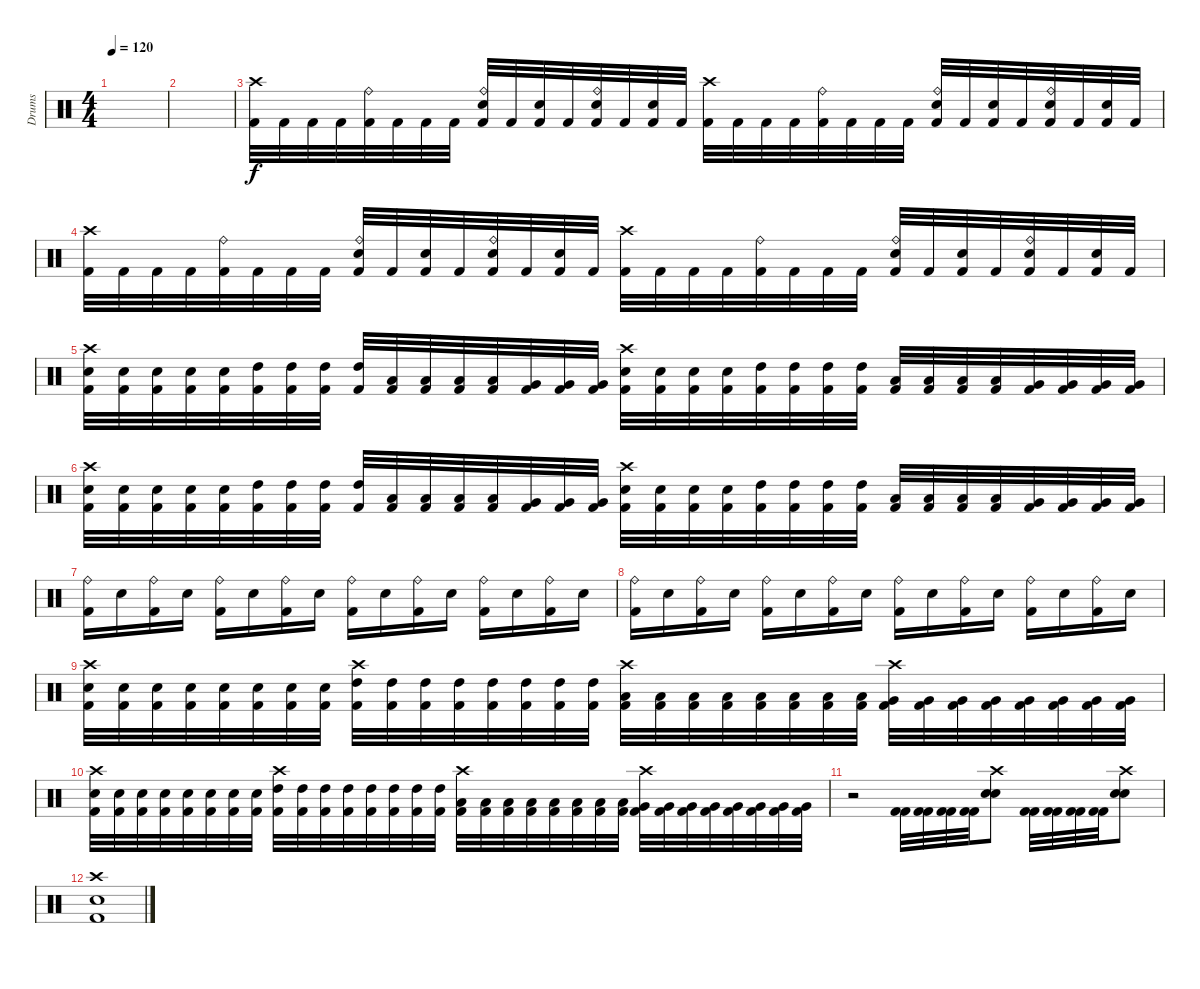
\track ("Drums" "Drums") {instrument percussion}
\staff {score}
\articulation defaults
\ts (4 4)
\tempo 120
\clef neutral
\ks c
|
|
("Crash high (hit)" "Kick (hit) 2").32 "Kick (hit) 2".32 "Kick (hit) 2".32 "Kick (hit) 2".32 ("Ride (bell)" "Kick (hit) 2").32 "Kick (hit) 2".32 "Kick (hit) 2".32 "Kick (hit) 2".32 ("Ride (bell)" "Snare (hit) 2" "Kick (hit) 2").32 "Kick (hit) 2".32 ("Snare (hit) 2" "Kick (hit) 2").32 "Kick (hit) 2".32 ("Ride (bell)" "Snare (hit) 2" "Kick (hit) 2").32 "Kick (hit) 2".32 ("Snare (hit) 2" "Kick (hit) 2").32 "Kick (hit) 2".32 ("Crash high (hit)" "Kick (hit) 2").32 "Kick (hit) 2".32 "Kick (hit) 2".32 "Kick (hit) 2".32 ("Ride (bell)" "Kick (hit) 2").32 "Kick (hit) 2".32 "Kick (hit) 2".32 "Kick (hit) 2".32 ("Ride (bell)" "Snare (hit) 2" "Kick (hit) 2").32 "Kick (hit) 2".32 ("Snare (hit) 2" "Kick (hit) 2").32 "Kick (hit) 2".32 ("Ride (bell)" "Snare (hit) 2" "Kick (hit) 2").32 "Kick (hit) 2".32 ("Snare (hit) 2" "Kick (hit) 2").32 "Kick (hit) 2".32 |
("Crash high (hit)" "Kick (hit) 2").32 "Kick (hit) 2".32 "Kick (hit) 2".32 "Kick (hit) 2".32 ("Ride (bell)" "Kick (hit) 2").32 "Kick (hit) 2".32 "Kick (hit) 2".32 "Kick (hit) 2".32 ("Ride (bell)" "Snare (hit) 2" "Kick (hit) 2").32 "Kick (hit) 2".32 ("Snare (hit) 2" "Kick (hit) 2").32 "Kick (hit) 2".32 ("Ride (bell)" "Snare (hit) 2" "Kick (hit) 2").32 "Kick (hit) 2".32 ("Snare (hit) 2" "Kick (hit) 2").32 "Kick (hit) 2".32 ("Crash high (hit)" "Kick (hit) 2").32 "Kick (hit) 2".32 "Kick (hit) 2".32 "Kick (hit) 2".32 ("Ride (bell)" "Kick (hit) 2").32 "Kick (hit) 2".32 "Kick (hit) 2".32 "Kick (hit) 2".32 ("Ride (bell)" "Snare (hit) 2" "Kick (hit) 2").32 "Kick (hit) 2".32 ("Snare (hit) 2" "Kick (hit) 2").32 "Kick (hit) 2".32 ("Ride (bell)" "Snare (hit) 2" "Kick (hit) 2").32 "Kick (hit) 2".32 ("Snare (hit) 2" "Kick (hit) 2").32 "Kick (hit) 2".32 |
("Crash high (hit)" "Snare (hit) 2" "Kick (hit) 2").32 ("Snare (hit) 2" "Kick (hit) 2").32 ("Snare (hit) 2" "Kick (hit) 2").32 ("Snare (hit) 2" "Kick (hit) 2").32 ("Snare (hit) 2" "Kick (hit) 2").32 ("High Tom (hit)" "Kick (hit) 2").32 ("High Tom (hit)" "Kick (hit) 2").32 ("High Tom (hit)" "Kick (hit) 2").32 ("High Tom (hit)" "Kick (hit) 2").32 ("Low Tom (hit)" "Kick (hit) 2").32 ("Low Tom (hit)" "Kick (hit) 2").32 ("Low Tom (hit)" "Kick (hit) 2").32 ("Low Tom (hit)" "Kick (hit) 2").32 ("Very Low Tom (hit)" "Kick (hit) 2").32 ("Very Low Tom (hit)" "Kick (hit) 2").32 ("Very Low Tom (hit)" "Kick (hit) 2").32 ("Crash high (hit)" "Snare (hit) 2" "Kick (hit) 2").32 ("Snare (hit) 2" "Kick (hit) 2").32 ("Snare (hit) 2" "Kick (hit) 2").32 ("Snare (hit) 2" "Kick (hit) 2").32 ("High Tom (hit)" "Kick (hit) 2").32 ("High Tom (hit)" "Kick (hit) 2").32 ("High Tom (hit)" "Kick (hit) 2").32 ("High Tom (hit)" "Kick (hit) 2").32 ("Low Tom (hit)" "Kick (hit) 2").32 ("Low Tom (hit)" "Kick (hit) 2").32 ("Low Tom (hit)" "Kick (hit) 2").32 ("Low Tom (hit)" "Kick (hit) 2").32 ("Very Low Tom (hit)" "Kick (hit) 2").32 ("Very Low Tom (hit)" "Kick (hit) 2").32 ("Very Low Tom (hit)" "Kick (hit) 2").32 ("Very Low Tom (hit)" "Kick (hit) 2").32 |
("Crash high (hit)" "Snare (hit) 2" "Kick (hit) 2").32 ("Snare (hit) 2" "Kick (hit) 2").32 ("Snare (hit) 2" "Kick (hit) 2").32 ("Snare (hit) 2" "Kick (hit) 2").32 ("Snare (hit) 2" "Kick (hit) 2").32 ("High Tom (hit)" "Kick (hit) 2").32 ("High Tom (hit)" "Kick (hit) 2").32 ("High Tom (hit)" "Kick (hit) 2").32 ("High Tom (hit)" "Kick (hit) 2").32 ("Low Tom (hit)" "Kick (hit) 2").32 ("Low Tom (hit)" "Kick (hit) 2").32 ("Low Tom (hit)" "Kick (hit) 2").32 ("Low Tom (hit)" "Kick (hit) 2").32 ("Very Low Tom (hit)" "Kick (hit) 2").32 ("Very Low Tom (hit)" "Kick (hit) 2").32 ("Very Low Tom (hit)" "Kick (hit) 2").32 ("Crash high (hit)" "Snare (hit) 2" "Kick (hit) 2").32 ("Snare (hit) 2" "Kick (hit) 2").32 ("Snare (hit) 2" "Kick (hit) 2").32 ("Snare (hit) 2" "Kick (hit) 2").32 ("High Tom (hit)" "Kick (hit) 2").32 ("High Tom (hit)" "Kick (hit) 2").32 ("High Tom (hit)" "Kick (hit) 2").32 ("High Tom (hit)" "Kick (hit) 2").32 ("Low Tom (hit)" "Kick (hit) 2").32 ("Low Tom (hit)" "Kick (hit) 2").32 ("Low Tom (hit)" "Kick (hit) 2").32 ("Low Tom (hit)" "Kick (hit) 2").32 ("Very Low Tom (hit)" "Kick (hit) 2").32 ("Very Low Tom (hit)" "Kick (hit) 2").32 ("Very Low Tom (hit)" "Kick (hit) 2").32 ("Very Low Tom (hit)" "Kick (hit) 2").32 |
("Ride (bell)" "Kick (hit) 2").16 "Snare (hit) 2".16 ("Ride (bell)" "Kick (hit) 2").16 "Snare (hit) 2".16 ("Ride (bell)" "Kick (hit) 2").16 "Snare (hit) 2".16 ("Ride (bell)" "Kick (hit) 2").16 "Snare (hit) 2".16 ("Ride (bell)" "Kick (hit) 2").16 "Snare (hit) 2".16 ("Ride (bell)" "Kick (hit) 2").16 "Snare (hit) 2".16 ("Ride (bell)" "Kick (hit) 2").16 "Snare (hit) 2".16 ("Ride (bell)" "Kick (hit) 2").16 "Snare (hit) 2".16 |
("Ride (bell)" "Kick (hit) 2").16 "Snare (hit) 2".16 ("Ride (bell)" "Kick (hit) 2").16 "Snare (hit) 2".16 ("Ride (bell)" "Kick (hit) 2").16 "Snare (hit) 2".16 ("Ride (bell)" "Kick (hit) 2").16 "Snare (hit) 2".16 ("Ride (bell)" "Kick (hit) 2").16 "Snare (hit) 2".16 ("Ride (bell)" "Kick (hit) 2").16 "Snare (hit) 2".16 ("Ride (bell)" "Kick (hit) 2").16 "Snare (hit) 2".16 ("Ride (bell)" "Kick (hit) 2").16 "Snare (hit) 2".16 |
("Crash high (hit)" "Snare (hit) 2" "Kick (hit) 2").32 ("Snare (hit) 2" "Kick (hit) 2").32 ("Snare (hit) 2" "Kick (hit) 2").32 ("Snare (hit) 2" "Kick (hit) 2").32 ("Snare (hit) 2" "Kick (hit) 2").32 ("Snare (hit) 2" "Kick (hit) 2").32 ("Snare (hit) 2" "Kick (hit) 2").32 ("Snare (hit) 2" "Kick (hit) 2").32 ("Crash high (hit)" "High Tom (hit)" "Kick (hit) 2").32 ("High Tom (hit)" "Kick (hit) 2").32 ("High Tom (hit)" "Kick (hit) 2").32 ("High Tom (hit)" "Kick (hit) 2").32 ("High Tom (hit)" "Kick (hit) 2").32 ("High Tom (hit)" "Kick (hit) 2").32 ("High Tom (hit)" "Kick (hit) 2").32 ("High Tom (hit)" "Kick (hit) 2").32 ("Crash high (hit)" "Low Tom (hit)" "Kick (hit) 2").32 ("Low Tom (hit)" "Kick (hit) 2").32 ("Low Tom (hit)" "Kick (hit) 2").32 ("Low Tom (hit)" "Kick (hit) 2").32 ("Low Tom (hit)" "Kick (hit) 2").32 ("Low Tom (hit)" "Kick (hit) 2").32 ("Low Tom (hit)" "Kick (hit) 2").32 ("Low Tom (hit)" "Kick (hit) 2").32 ("Crash high (hit)" "Very Low Tom (hit)" "Kick (hit) 2").32 ("Very Low Tom (hit)" "Kick (hit) 2").32 ("Very Low Tom (hit)" "Kick (hit) 2").32 ("Very Low Tom (hit)" "Kick (hit) 2").32 ("Very Low Tom (hit)" "Kick (hit) 2").32 ("Very Low Tom (hit)" "Kick (hit) 2").32 ("Very Low Tom (hit)" "Kick (hit) 2").32 ("Very Low Tom (hit)" "Kick (hit) 2").32 |
("Crash high (hit)" "Snare (hit) 2" "Kick (hit) 2").32 ("Snare (hit) 2" "Kick (hit) 2").32 ("Snare (hit) 2" "Kick (hit) 2").32 ("Snare (hit) 2" "Kick (hit) 2").32 ("Snare (hit) 2" "Kick (hit) 2").32 ("Snare (hit) 2" "Kick (hit) 2").32 ("Snare (hit) 2" "Kick (hit) 2").32 ("Snare (hit) 2" "Kick (hit) 2").32 ("Crash high (hit)" "High Tom (hit)" "Kick (hit) 2").32 ("High Tom (hit)" "Kick (hit) 2").32 ("High Tom (hit)" "Kick (hit) 2").32 ("High Tom (hit)" "Kick (hit) 2").32 ("High Tom (hit)" "Kick (hit) 2").32 ("High Tom (hit)" "Kick (hit) 2").32 ("High Tom (hit)" "Kick (hit) 2").32 ("High Tom (hit)" "Kick (hit) 2").32 ("Crash high (hit)" "Low Tom (hit)" "Kick (hit) 2").32 ("Low Tom (hit)" "Kick (hit) 2").32 ("Low Tom (hit)" "Kick (hit) 2").32 ("Low Tom (hit)" "Kick (hit) 2").32 ("Low Tom (hit)" "Kick (hit) 2").32 ("Low Tom (hit)" "Kick (hit) 2").32 ("Low Tom (hit)" "Kick (hit) 2").32 ("Low Tom (hit)" "Kick (hit) 2").32 ("Crash high (hit)" "Very Low Tom (hit)" "Kick (hit) 2").32 ("Very Low Tom (hit)" "Kick (hit) 2").32 ("Very Low Tom (hit)" "Kick (hit) 2").32 ("Very Low Tom (hit)" "Kick (hit) 2").32 ("Very Low Tom (hit)" "Kick (hit) 2").32 ("Very Low Tom (hit)" "Kick (hit) 2").32 ("Very Low Tom (hit)" "Kick (hit) 2").32 ("Very Low Tom (hit)" "Kick (hit) 2").32 |
r.2 ("Kick (hit) 2" "Kick (hit) 2").32 ("Kick (hit) 2" "Kick (hit) 2").32 ("Kick (hit) 2" "Kick (hit) 2").32 ("Kick (hit) 2" "Kick (hit) 2").32 ("Crash high (hit)" "Snare (hit) 2" "Snare (hit) 2").8 ("Kick (hit) 2" "Kick (hit) 2").32 ("Kick (hit) 2" "Kick (hit) 2").32 ("Kick (hit) 2" "Kick (hit) 2").32 ("Kick (hit) 2" "Kick (hit) 2").32 ("Crash high (hit)" "Snare (hit) 2" "Snare (hit) 2").8 |
("Crash high (hit)" "Snare (hit) 2" "Kick (hit) 2").1
